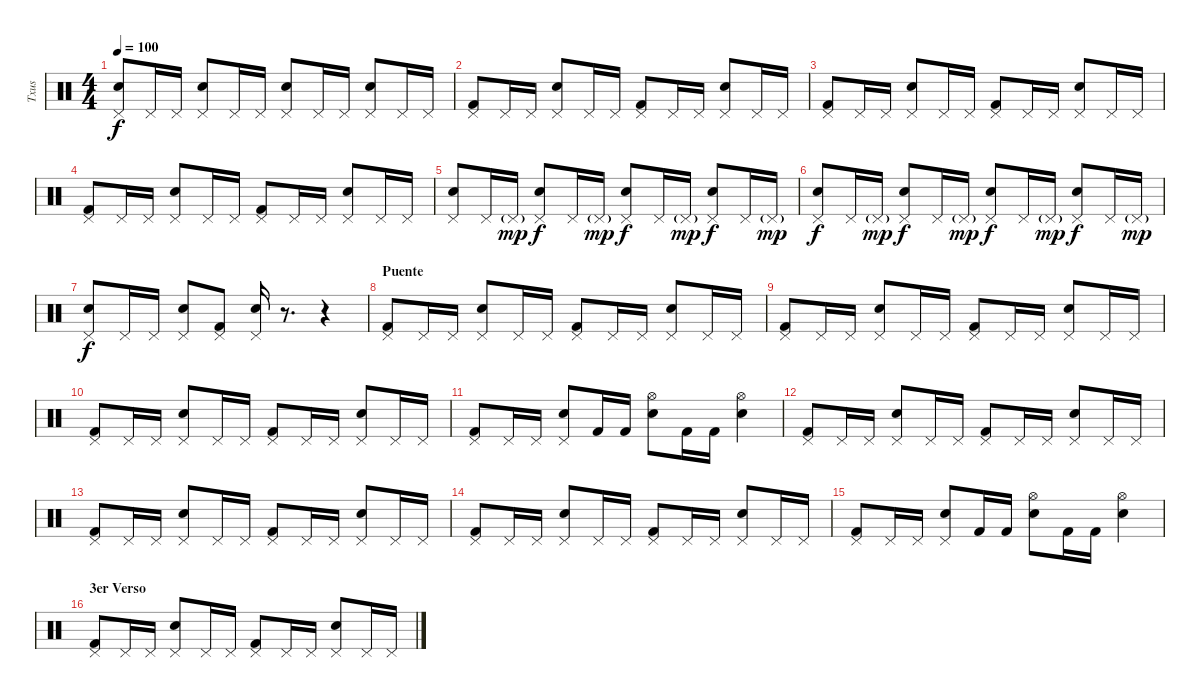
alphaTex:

\track ("Txus" "Txus") {instrument percussion}
\staff {score}
\articulation defaults
\ts (4 4)
\tempo 100
\clef neutral
\ks c
("Pedal Hi-Hat (hit)" "Snare (hit) 2").8{dy f} "Pedal Hi-Hat (hit)".16 "Pedal Hi-Hat (hit)".16 ("Pedal Hi-Hat (hit)" "Snare (hit) 2").8 "Pedal Hi-Hat (hit)".16 "Pedal Hi-Hat (hit)".16 ("Pedal Hi-Hat (hit)" "Snare (hit) 2").8 "Pedal Hi-Hat (hit)".16 "Pedal Hi-Hat (hit)".16 ("Pedal Hi-Hat (hit)" "Snare (hit) 2").8 "Pedal Hi-Hat (hit)".16 "Pedal Hi-Hat (hit)".16 |
("Pedal Hi-Hat (hit)" "Kick (hit) 2").8 "Pedal Hi-Hat (hit)".16 "Pedal Hi-Hat (hit)".16 ("Pedal Hi-Hat (hit)" "Snare (hit) 2").8 "Pedal Hi-Hat (hit)".16 "Pedal Hi-Hat (hit)".16 ("Pedal Hi-Hat (hit)" "Kick (hit) 2").8 "Pedal Hi-Hat (hit)".16 "Pedal Hi-Hat (hit)".16 ("Pedal Hi-Hat (hit)" "Snare (hit) 2").8 "Pedal Hi-Hat (hit)".16 "Pedal Hi-Hat (hit)".16 |
("Pedal Hi-Hat (hit)" "Kick (hit) 2").8 "Pedal Hi-Hat (hit)".16 "Pedal Hi-Hat (hit)".16 ("Pedal Hi-Hat (hit)" "Snare (hit) 2").8 "Pedal Hi-Hat (hit)".16 "Pedal Hi-Hat (hit)".16 ("Pedal Hi-Hat (hit)" "Kick (hit) 2").8 "Pedal Hi-Hat (hit)".16 "Pedal Hi-Hat (hit)".16 ("Pedal Hi-Hat (hit)" "Snare (hit) 2").8 "Pedal Hi-Hat (hit)".16 "Pedal Hi-Hat (hit)".16 |
("Pedal Hi-Hat (hit)" "Kick (hit) 2").8 "Pedal Hi-Hat (hit)".16 "Pedal Hi-Hat (hit)".16 ("Pedal Hi-Hat (hit)" "Snare (hit) 2").8 "Pedal Hi-Hat (hit)".16 "Pedal Hi-Hat (hit)".16 ("Pedal Hi-Hat (hit)" "Kick (hit) 2").8 "Pedal Hi-Hat (hit)".16 "Pedal Hi-Hat (hit)".16 ("Pedal Hi-Hat (hit)" "Snare (hit) 2").8 "Pedal Hi-Hat (hit)".16 "Pedal Hi-Hat (hit)".16 |
("Pedal Hi-Hat (hit)" "Snare (hit) 2").8 "Pedal Hi-Hat (hit)".16 "Pedal Hi-Hat (hit)"{g}.16{dy mp} ("Pedal Hi-Hat (hit)" "Snare (hit) 2").8{dy f} "Pedal Hi-Hat (hit)".16 "Pedal Hi-Hat (hit)"{g}.16{dy mp} ("Pedal Hi-Hat (hit)" "Snare (hit) 2").8{dy f} "Pedal Hi-Hat (hit)".16 "Pedal Hi-Hat (hit)"{g}.16{dy mp} ("Pedal Hi-Hat (hit)" "Snare (hit) 2").8{dy f} "Pedal Hi-Hat (hit)".16 "Pedal Hi-Hat (hit)"{g}.16{dy mp} |
("Pedal Hi-Hat (hit)" "Snare (hit) 2").8{dy f} "Pedal Hi-Hat (hit)".16 "Pedal Hi-Hat (hit)"{g}.16{dy mp} ("Pedal Hi-Hat (hit)" "Snare (hit) 2").8{dy f} "Pedal Hi-Hat (hit)".16 "Pedal Hi-Hat (hit)"{g}.16{dy mp} ("Pedal Hi-Hat (hit)" "Snare (hit) 2").8{dy f} "Pedal Hi-Hat (hit)".16 "Pedal Hi-Hat (hit)"{g}.16{dy mp} ("Pedal Hi-Hat (hit)" "Snare (hit) 2").8{dy f} "Pedal Hi-Hat (hit)".16 "Pedal Hi-Hat (hit)"{g}.16{dy mp} |
("Pedal Hi-Hat (hit)" "Snare (hit) 2").8{dy f} "Pedal Hi-Hat (hit)".16 "Pedal Hi-Hat (hit)".16 ("Pedal Hi-Hat (hit)" "Snare (hit) 2").8 ("Pedal Hi-Hat (hit)" "Kick (hit) 2").8 ("Pedal Hi-Hat (hit)" "Snare (hit) 2").16 r.8{d} r.4 |
\section ("" "Puente")
("Pedal Hi-Hat (hit)" "Kick (hit) 2").8 "Pedal Hi-Hat (hit)".16 "Pedal Hi-Hat (hit)".16 ("Pedal Hi-Hat (hit)" "Snare (hit) 2").8 "Pedal Hi-Hat (hit)".16 "Pedal Hi-Hat (hit)".16 ("Pedal Hi-Hat (hit)" "Kick (hit) 2").8 "Pedal Hi-Hat (hit)".16 "Pedal Hi-Hat (hit)".16 ("Pedal Hi-Hat (hit)" "Snare (hit) 2").8 "Pedal Hi-Hat (hit)".16 "Pedal Hi-Hat (hit)".16 |
("Pedal Hi-Hat (hit)" "Kick (hit) 2").8 "Pedal Hi-Hat (hit)".16 "Pedal Hi-Hat (hit)".16 ("Pedal Hi-Hat (hit)" "Snare (hit) 2").8 "Pedal Hi-Hat (hit)".16 "Pedal Hi-Hat (hit)".16 ("Pedal Hi-Hat (hit)" "Kick (hit) 2").8 "Pedal Hi-Hat (hit)".16 "Pedal Hi-Hat (hit)".16 ("Pedal Hi-Hat (hit)" "Snare (hit) 2").8 "Pedal Hi-Hat (hit)".16 "Pedal Hi-Hat (hit)".16 |
("Pedal Hi-Hat (hit)" "Kick (hit) 2").8 "Pedal Hi-Hat (hit)".16 "Pedal Hi-Hat (hit)".16 ("Pedal Hi-Hat (hit)" "Snare (hit) 2").8 "Pedal Hi-Hat (hit)".16 "Pedal Hi-Hat (hit)".16 ("Pedal Hi-Hat (hit)" "Kick (hit) 2").8 "Pedal Hi-Hat (hit)".16 "Pedal Hi-Hat (hit)".16 ("Pedal Hi-Hat (hit)" "Snare (hit) 2").8 "Pedal Hi-Hat (hit)".16 "Pedal Hi-Hat (hit)".16 |
("Pedal Hi-Hat (hit)" "Kick (hit) 2").8 "Pedal Hi-Hat (hit)".16 "Pedal Hi-Hat (hit)".16 ("Pedal Hi-Hat (hit)" "Snare (hit) 2").8 "Kick (hit) 2".16 "Kick (hit) 2".16 ("Hi-Hat (open)" "Snare (hit) 2").8 "Kick (hit) 2".16 "Kick (hit) 2".16 ("Hi-Hat (open)" "Snare (hit) 2").4 |
("Pedal Hi-Hat (hit)" "Kick (hit) 2").8 "Pedal Hi-Hat (hit)".16 "Pedal Hi-Hat (hit)".16 ("Pedal Hi-Hat (hit)" "Snare (hit) 2").8 "Pedal Hi-Hat (hit)".16 "Pedal Hi-Hat (hit)".16 ("Pedal Hi-Hat (hit)" "Kick (hit) 2").8 "Pedal Hi-Hat (hit)".16 "Pedal Hi-Hat (hit)".16 ("Pedal Hi-Hat (hit)" "Snare (hit) 2").8 "Pedal Hi-Hat (hit)".16 "Pedal Hi-Hat (hit)".16 |
("Pedal Hi-Hat (hit)" "Kick (hit) 2").8 "Pedal Hi-Hat (hit)".16 "Pedal Hi-Hat (hit)".16 ("Pedal Hi-Hat (hit)" "Snare (hit) 2").8 "Pedal Hi-Hat (hit)".16 "Pedal Hi-Hat (hit)".16 ("Pedal Hi-Hat (hit)" "Kick (hit) 2").8 "Pedal Hi-Hat (hit)".16 "Pedal Hi-Hat (hit)".16 ("Pedal Hi-Hat (hit)" "Snare (hit) 2").8 "Pedal Hi-Hat (hit)".16 "Pedal Hi-Hat (hit)".16 |
("Pedal Hi-Hat (hit)" "Kick (hit) 2").8 "Pedal Hi-Hat (hit)".16 "Pedal Hi-Hat (hit)".16 ("Pedal Hi-Hat (hit)" "Snare (hit) 2").8 "Pedal Hi-Hat (hit)".16 "Pedal Hi-Hat (hit)".16 ("Pedal Hi-Hat (hit)" "Kick (hit) 2").8 "Pedal Hi-Hat (hit)".16 "Pedal Hi-Hat (hit)".16 ("Pedal Hi-Hat (hit)" "Snare (hit) 2").8 "Pedal Hi-Hat (hit)".16 "Pedal Hi-Hat (hit)".16 |
("Pedal Hi-Hat (hit)" "Kick (hit) 2").8 "Pedal Hi-Hat (hit)".16 "Pedal Hi-Hat (hit)".16 ("Pedal Hi-Hat (hit)" "Snare (hit) 2").8 "Kick (hit) 2".16 "Kick (hit) 2".16 ("Hi-Hat (open)" "Snare (hit) 2").8 "Kick (hit) 2".16 "Kick (hit) 2".16 ("Hi-Hat (open)" "Snare (hit) 2").4 |
\section ("" "3er Verso")
("Pedal Hi-Hat (hit)" "Kick (hit) 2").8 "Pedal Hi-Hat (hit)".16 "Pedal Hi-Hat (hit)".16 ("Pedal Hi-Hat (hit)" "Snare (hit) 2").8 "Pedal Hi-Hat (hit)".16 "Pedal Hi-Hat (hit)".16 ("Pedal Hi-Hat (hit)" "Kick (hit) 2").8 "Pedal Hi-Hat (hit)".16 "Pedal Hi-Hat (hit)".16 ("Pedal Hi-Hat (hit)" "Snare (hit) 2").8 "Pedal Hi-Hat (hit)".16 "Pedal Hi-Hat (hit)".16
